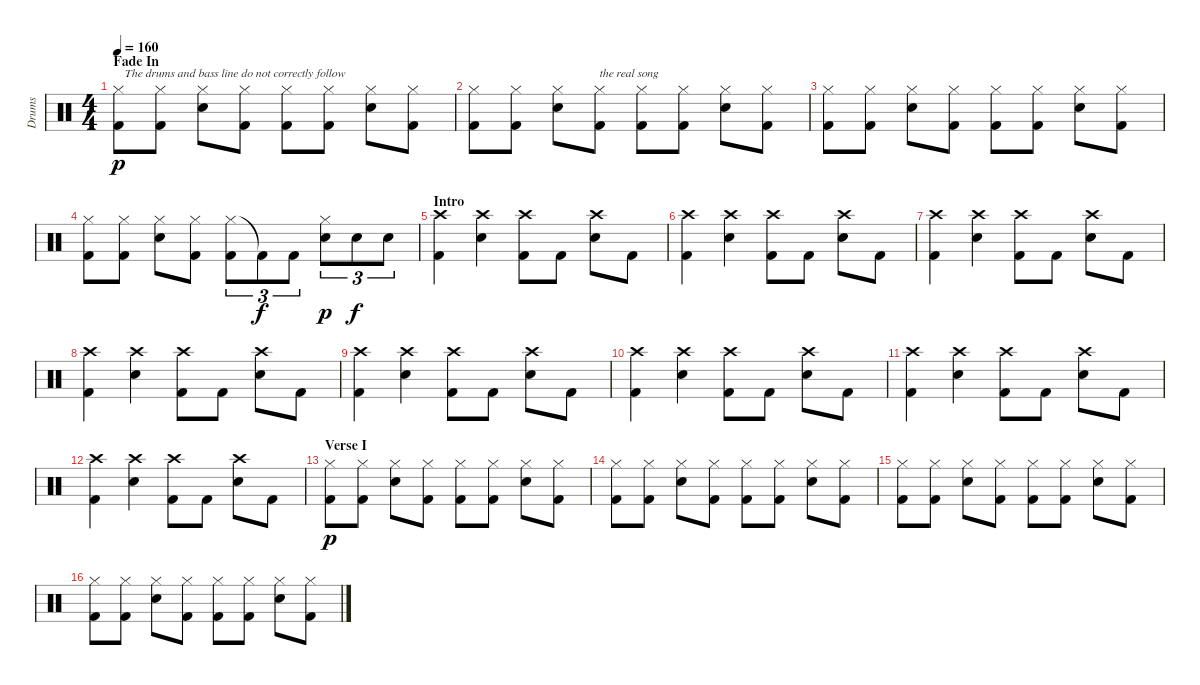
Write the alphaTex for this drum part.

\track ("Drums" "Drums") {instrument percussion}
\staff {score}
\articulation defaults
\ts (4 4)
\section ("" "Fade In")
\tempo 160
\clef neutral
\ks c
("Hi-Hat (closed)" "Kick (hit) 2").8{txt "  The drums and bass line do not correctly follow" dy p} ("Hi-Hat (closed)" "Kick (hit) 2").8 ("Hi-Hat (closed)" "Snare (hit) 2").8 ("Hi-Hat (closed)" "Kick (hit) 2").8 ("Hi-Hat (closed)" "Kick (hit) 2").8 ("Hi-Hat (closed)" "Kick (hit) 2").8 ("Hi-Hat (closed)" "Snare (hit) 2").8 ("Hi-Hat (closed)" "Kick (hit) 2").8 |
("Hi-Hat (closed)" "Kick (hit) 2").8 ("Hi-Hat (closed)" "Kick (hit) 2").8 ("Hi-Hat (closed)" "Snare (hit) 2").8 ("Hi-Hat (closed)" "Kick (hit) 2").8{txt "the real song"} ("Hi-Hat (closed)" "Kick (hit) 2").8 ("Hi-Hat (closed)" "Kick (hit) 2").8 ("Hi-Hat (closed)" "Snare (hit) 2").8 ("Hi-Hat (closed)" "Kick (hit) 2").8 |
("Hi-Hat (closed)" "Kick (hit) 2").8 ("Hi-Hat (closed)" "Kick (hit) 2").8 ("Hi-Hat (closed)" "Snare (hit) 2").8 ("Hi-Hat (closed)" "Kick (hit) 2").8 ("Hi-Hat (closed)" "Kick (hit) 2").8 ("Hi-Hat (closed)" "Kick (hit) 2").8 ("Hi-Hat (closed)" "Snare (hit) 2").8 ("Hi-Hat (closed)" "Kick (hit) 2").8 |
("Hi-Hat (closed)" "Kick (hit) 2").8 ("Hi-Hat (closed)" "Kick (hit) 2").8 ("Hi-Hat (closed)" "Snare (hit) 2").8 ("Hi-Hat (closed)" "Kick (hit) 2").8 ("Hi-Hat (closed)" "Kick (hit) 2").8{tu (3 2)} "Kick (hit) 2"{t}.8{tu (3 2) dy f} "Kick (hit) 2".8{tu (3 2)} ("Hi-Hat (closed)" "Snare (hit) 2").8{tu (3 2) dy p} "Snare (hit) 2".8{tu (3 2) dy f} "Snare (hit) 2".8{tu (3 2)} |
\section ("" "Intro")
("Crash high (hit)" "Kick (hit) 2").4 ("Crash high (hit)" "Snare (hit) 2").4 ("Crash high (hit)" "Kick (hit) 2").8 "Kick (hit) 2".8 ("Crash high (hit)" "Snare (hit) 2").8 "Kick (hit) 2".8 |
("Crash high (hit)" "Kick (hit) 2").4 ("Crash high (hit)" "Snare (hit) 2").4 ("Crash high (hit)" "Kick (hit) 2").8 "Kick (hit) 2".8 ("Crash high (hit)" "Snare (hit) 2").8 "Kick (hit) 2".8 |
("Crash high (hit)" "Kick (hit) 2").4 ("Crash high (hit)" "Snare (hit) 2").4 ("Crash high (hit)" "Kick (hit) 2").8 "Kick (hit) 2".8 ("Crash high (hit)" "Snare (hit) 2").8 "Kick (hit) 2".8 |
("Crash high (hit)" "Kick (hit) 2").4 ("Crash high (hit)" "Snare (hit) 2").4 ("Crash high (hit)" "Kick (hit) 2").8 "Kick (hit) 2".8 ("Crash high (hit)" "Snare (hit) 2").8 "Kick (hit) 2".8 |
("Crash high (hit)" "Kick (hit) 2").4 ("Crash high (hit)" "Snare (hit) 2").4 ("Crash high (hit)" "Kick (hit) 2").8 "Kick (hit) 2".8 ("Crash high (hit)" "Snare (hit) 2").8 "Kick (hit) 2".8 |
("Crash high (hit)" "Kick (hit) 2").4 ("Crash high (hit)" "Snare (hit) 2").4 ("Crash high (hit)" "Kick (hit) 2").8 "Kick (hit) 2".8 ("Crash high (hit)" "Snare (hit) 2").8 "Kick (hit) 2".8 |
("Crash high (hit)" "Kick (hit) 2").4 ("Crash high (hit)" "Snare (hit) 2").4 ("Crash high (hit)" "Kick (hit) 2").8 "Kick (hit) 2".8 ("Crash high (hit)" "Snare (hit) 2").8 "Kick (hit) 2".8 |
("Crash high (hit)" "Kick (hit) 2").4 ("Crash high (hit)" "Snare (hit) 2").4 ("Crash high (hit)" "Kick (hit) 2").8 "Kick (hit) 2".8 ("Crash high (hit)" "Snare (hit) 2").8 "Kick (hit) 2".8 |
\section ("" "Verse I")
("Hi-Hat (closed)" "Kick (hit) 2").8{dy p} ("Hi-Hat (closed)" "Kick (hit) 2").8 ("Hi-Hat (closed)" "Snare (hit) 2").8 ("Hi-Hat (closed)" "Kick (hit) 2").8 ("Hi-Hat (closed)" "Kick (hit) 2").8 ("Hi-Hat (closed)" "Kick (hit) 2").8 ("Hi-Hat (closed)" "Snare (hit) 2").8 ("Hi-Hat (closed)" "Kick (hit) 2").8 |
("Hi-Hat (closed)" "Kick (hit) 2").8 ("Hi-Hat (closed)" "Kick (hit) 2").8 ("Hi-Hat (closed)" "Snare (hit) 2").8 ("Hi-Hat (closed)" "Kick (hit) 2").8 ("Hi-Hat (closed)" "Kick (hit) 2").8 ("Hi-Hat (closed)" "Kick (hit) 2").8 ("Hi-Hat (closed)" "Snare (hit) 2").8 ("Hi-Hat (closed)" "Kick (hit) 2").8 |
("Hi-Hat (closed)" "Kick (hit) 2").8 ("Hi-Hat (closed)" "Kick (hit) 2").8 ("Hi-Hat (closed)" "Snare (hit) 2").8 ("Hi-Hat (closed)" "Kick (hit) 2").8 ("Hi-Hat (closed)" "Kick (hit) 2").8 ("Hi-Hat (closed)" "Kick (hit) 2").8 ("Hi-Hat (closed)" "Snare (hit) 2").8 ("Hi-Hat (closed)" "Kick (hit) 2").8 |
("Hi-Hat (closed)" "Kick (hit) 2").8 ("Hi-Hat (closed)" "Kick (hit) 2").8 ("Hi-Hat (closed)" "Snare (hit) 2").8 ("Hi-Hat (closed)" "Kick (hit) 2").8 ("Hi-Hat (closed)" "Kick (hit) 2").8 ("Hi-Hat (closed)" "Kick (hit) 2").8 ("Hi-Hat (closed)" "Snare (hit) 2").8 ("Hi-Hat (closed)" "Kick (hit) 2").8
